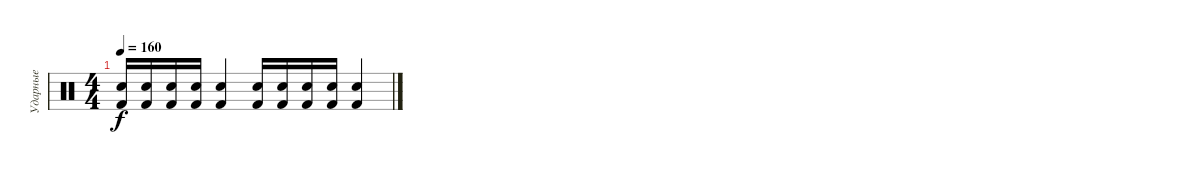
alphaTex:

\track ("Ударные" "Ударные") {instrument percussion}
\staff {score}
\articulation defaults
\ts (4 4)
\tempo 160
\clef neutral
\ks c
("Electric Snare (hit)" "Kick (hit) 2").16{dy f} ("Electric Snare (hit)" "Kick (hit) 2").16 ("Electric Snare (hit)" "Kick (hit) 2").16 ("Electric Snare (hit)" "Kick (hit) 2").16 ("Electric Snare (hit)" "Kick (hit) 2").4 ("Electric Snare (hit)" "Kick (hit) 2").16 ("Electric Snare (hit)" "Kick (hit) 2").16 ("Electric Snare (hit)" "Kick (hit) 2").16 ("Electric Snare (hit)" "Kick (hit) 2").16 ("Electric Snare (hit)" "Kick (hit) 2").4
